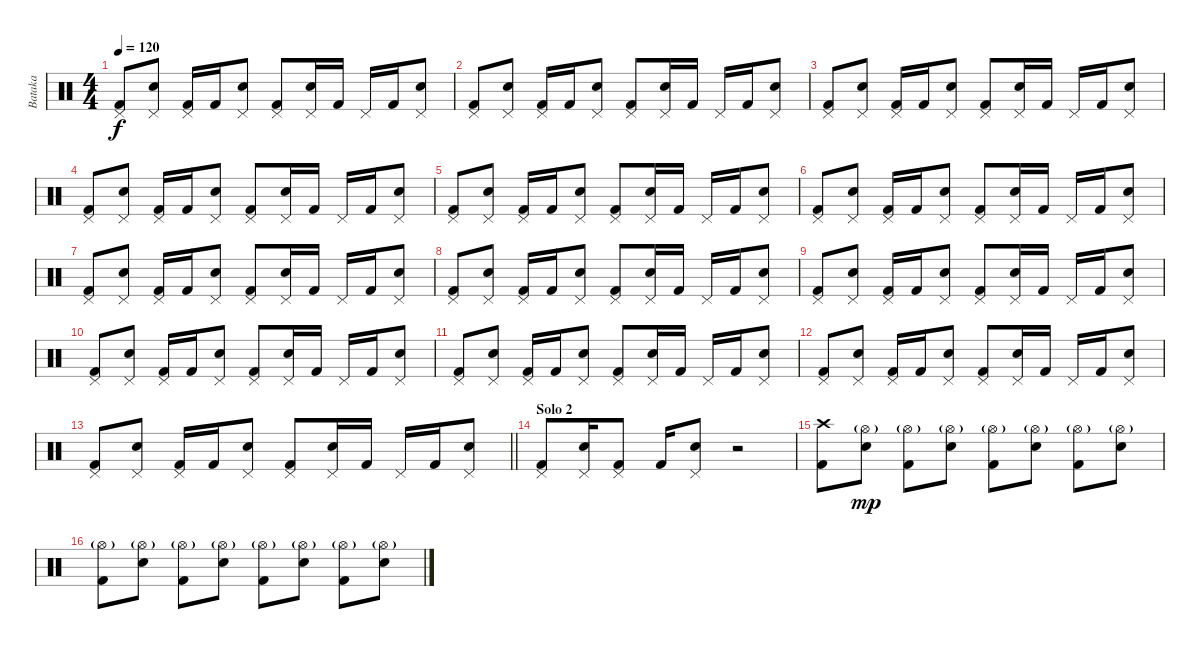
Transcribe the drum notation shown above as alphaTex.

\track ("Bataka" "Bataka") {instrument percussion}
\staff {score}
\articulation defaults
\ts (4 4)
\tempo 120
\clef neutral
\ks c
("Pedal Hi-Hat (hit)" "Kick (hit) 2").8{dy f} ("Pedal Hi-Hat (hit)" "Snare (hit) 2").8 ("Pedal Hi-Hat (hit)" "Kick (hit) 2").16 "Kick (hit) 2".16 ("Pedal Hi-Hat (hit)" "Snare (hit) 2").8 ("Pedal Hi-Hat (hit)" "Kick (hit) 2").8 ("Pedal Hi-Hat (hit)" "Snare (hit) 2").16 "Kick (hit) 2".16 "Pedal Hi-Hat (hit)".16 "Kick (hit) 2".16 ("Pedal Hi-Hat (hit)" "Snare (hit) 2").8 |
("Pedal Hi-Hat (hit)" "Kick (hit) 2").8 ("Pedal Hi-Hat (hit)" "Snare (hit) 2").8 ("Pedal Hi-Hat (hit)" "Kick (hit) 2").16 "Kick (hit) 2".16 ("Pedal Hi-Hat (hit)" "Snare (hit) 2").8 ("Pedal Hi-Hat (hit)" "Kick (hit) 2").8 ("Pedal Hi-Hat (hit)" "Snare (hit) 2").16 "Kick (hit) 2".16 "Pedal Hi-Hat (hit)".16 "Kick (hit) 2".16 ("Pedal Hi-Hat (hit)" "Snare (hit) 2").8 |
("Pedal Hi-Hat (hit)" "Kick (hit) 2").8 ("Pedal Hi-Hat (hit)" "Snare (hit) 2").8 ("Pedal Hi-Hat (hit)" "Kick (hit) 2").16 "Kick (hit) 2".16 ("Pedal Hi-Hat (hit)" "Snare (hit) 2").8 ("Pedal Hi-Hat (hit)" "Kick (hit) 2").8 ("Pedal Hi-Hat (hit)" "Snare (hit) 2").16 "Kick (hit) 2".16 "Pedal Hi-Hat (hit)".16 "Kick (hit) 2".16 ("Pedal Hi-Hat (hit)" "Snare (hit) 2").8 |
("Pedal Hi-Hat (hit)" "Kick (hit) 2").8 ("Pedal Hi-Hat (hit)" "Snare (hit) 2").8 ("Pedal Hi-Hat (hit)" "Kick (hit) 2").16 "Kick (hit) 2".16 ("Pedal Hi-Hat (hit)" "Snare (hit) 2").8 ("Pedal Hi-Hat (hit)" "Kick (hit) 2").8 ("Pedal Hi-Hat (hit)" "Snare (hit) 2").16 "Kick (hit) 2".16 "Pedal Hi-Hat (hit)".16 "Kick (hit) 2".16 ("Pedal Hi-Hat (hit)" "Snare (hit) 2").8 |
("Pedal Hi-Hat (hit)" "Kick (hit) 2").8 ("Pedal Hi-Hat (hit)" "Snare (hit) 2").8 ("Pedal Hi-Hat (hit)" "Kick (hit) 2").16 "Kick (hit) 2".16 ("Pedal Hi-Hat (hit)" "Snare (hit) 2").8 ("Pedal Hi-Hat (hit)" "Kick (hit) 2").8 ("Pedal Hi-Hat (hit)" "Snare (hit) 2").16 "Kick (hit) 2".16 "Pedal Hi-Hat (hit)".16 "Kick (hit) 2".16 ("Pedal Hi-Hat (hit)" "Snare (hit) 2").8 |
("Pedal Hi-Hat (hit)" "Kick (hit) 2").8 ("Pedal Hi-Hat (hit)" "Snare (hit) 2").8 ("Pedal Hi-Hat (hit)" "Kick (hit) 2").16 "Kick (hit) 2".16 ("Pedal Hi-Hat (hit)" "Snare (hit) 2").8 ("Pedal Hi-Hat (hit)" "Kick (hit) 2").8 ("Pedal Hi-Hat (hit)" "Snare (hit) 2").16 "Kick (hit) 2".16 "Pedal Hi-Hat (hit)".16 "Kick (hit) 2".16 ("Pedal Hi-Hat (hit)" "Snare (hit) 2").8 |
("Pedal Hi-Hat (hit)" "Kick (hit) 2").8 ("Pedal Hi-Hat (hit)" "Snare (hit) 2").8 ("Pedal Hi-Hat (hit)" "Kick (hit) 2").16 "Kick (hit) 2".16 ("Pedal Hi-Hat (hit)" "Snare (hit) 2").8 ("Pedal Hi-Hat (hit)" "Kick (hit) 2").8 ("Pedal Hi-Hat (hit)" "Snare (hit) 2").16 "Kick (hit) 2".16 "Pedal Hi-Hat (hit)".16 "Kick (hit) 2".16 ("Pedal Hi-Hat (hit)" "Snare (hit) 2").8 |
("Pedal Hi-Hat (hit)" "Kick (hit) 2").8 ("Pedal Hi-Hat (hit)" "Snare (hit) 2").8 ("Pedal Hi-Hat (hit)" "Kick (hit) 2").16 "Kick (hit) 2".16 ("Pedal Hi-Hat (hit)" "Snare (hit) 2").8 ("Pedal Hi-Hat (hit)" "Kick (hit) 2").8 ("Pedal Hi-Hat (hit)" "Snare (hit) 2").16 "Kick (hit) 2".16 "Pedal Hi-Hat (hit)".16 "Kick (hit) 2".16 ("Pedal Hi-Hat (hit)" "Snare (hit) 2").8 |
("Pedal Hi-Hat (hit)" "Kick (hit) 2").8 ("Pedal Hi-Hat (hit)" "Snare (hit) 2").8 ("Pedal Hi-Hat (hit)" "Kick (hit) 2").16 "Kick (hit) 2".16 ("Pedal Hi-Hat (hit)" "Snare (hit) 2").8 ("Pedal Hi-Hat (hit)" "Kick (hit) 2").8 ("Pedal Hi-Hat (hit)" "Snare (hit) 2").16 "Kick (hit) 2".16 "Pedal Hi-Hat (hit)".16 "Kick (hit) 2".16 ("Pedal Hi-Hat (hit)" "Snare (hit) 2").8 |
("Pedal Hi-Hat (hit)" "Kick (hit) 2").8 ("Pedal Hi-Hat (hit)" "Snare (hit) 2").8 ("Pedal Hi-Hat (hit)" "Kick (hit) 2").16 "Kick (hit) 2".16 ("Pedal Hi-Hat (hit)" "Snare (hit) 2").8 ("Pedal Hi-Hat (hit)" "Kick (hit) 2").8 ("Pedal Hi-Hat (hit)" "Snare (hit) 2").16 "Kick (hit) 2".16 "Pedal Hi-Hat (hit)".16 "Kick (hit) 2".16 ("Pedal Hi-Hat (hit)" "Snare (hit) 2").8 |
("Pedal Hi-Hat (hit)" "Kick (hit) 2").8 ("Pedal Hi-Hat (hit)" "Snare (hit) 2").8 ("Pedal Hi-Hat (hit)" "Kick (hit) 2").16 "Kick (hit) 2".16 ("Pedal Hi-Hat (hit)" "Snare (hit) 2").8 ("Pedal Hi-Hat (hit)" "Kick (hit) 2").8 ("Pedal Hi-Hat (hit)" "Snare (hit) 2").16 "Kick (hit) 2".16 "Pedal Hi-Hat (hit)".16 "Kick (hit) 2".16 ("Pedal Hi-Hat (hit)" "Snare (hit) 2").8 |
("Pedal Hi-Hat (hit)" "Kick (hit) 2").8 ("Pedal Hi-Hat (hit)" "Snare (hit) 2").8 ("Pedal Hi-Hat (hit)" "Kick (hit) 2").16 "Kick (hit) 2".16 ("Pedal Hi-Hat (hit)" "Snare (hit) 2").8 ("Pedal Hi-Hat (hit)" "Kick (hit) 2").8 ("Pedal Hi-Hat (hit)" "Snare (hit) 2").16 "Kick (hit) 2".16 "Pedal Hi-Hat (hit)".16 "Kick (hit) 2".16 ("Pedal Hi-Hat (hit)" "Snare (hit) 2").8 |
\barLineRight lightlight
("Pedal Hi-Hat (hit)" "Kick (hit) 2").8 ("Pedal Hi-Hat (hit)" "Snare (hit) 2").8 ("Pedal Hi-Hat (hit)" "Kick (hit) 2").16 "Kick (hit) 2".16 ("Pedal Hi-Hat (hit)" "Snare (hit) 2").8 ("Pedal Hi-Hat (hit)" "Kick (hit) 2").8 ("Pedal Hi-Hat (hit)" "Snare (hit) 2").16 "Kick (hit) 2".16 "Pedal Hi-Hat (hit)".16 "Kick (hit) 2".16 ("Pedal Hi-Hat (hit)" "Snare (hit) 2").8 |
\section ("" "Solo 2")
("Pedal Hi-Hat (hit)" "Kick (hit) 2").8 ("Pedal Hi-Hat (hit)" "Snare (hit) 2").16 ("Pedal Hi-Hat (hit)" "Kick (hit) 2").8 "Kick (hit) 2".16 ("Pedal Hi-Hat (hit)" "Snare (hit) 2").8 r.2 |
("Crash high (hit)" "Kick (hit) 2").8 ("Hi-Hat (open)"{g} "Snare (hit) 2").8{dy mp} ("Hi-Hat (open)"{g} "Kick (hit) 2").8 ("Hi-Hat (open)"{g} "Snare (hit) 2").8 ("Hi-Hat (open)"{g} "Kick (hit) 2").8 ("Hi-Hat (open)"{g} "Snare (hit) 2").8 ("Hi-Hat (open)"{g} "Kick (hit) 2").8 ("Hi-Hat (open)"{g} "Snare (hit) 2").8 |
("Hi-Hat (open)"{g} "Kick (hit) 2").8 ("Hi-Hat (open)"{g} "Snare (hit) 2").8 ("Hi-Hat (open)"{g} "Kick (hit) 2").8 ("Hi-Hat (open)"{g} "Snare (hit) 2").8 ("Hi-Hat (open)"{g} "Kick (hit) 2").8 ("Hi-Hat (open)"{g} "Snare (hit) 2").8 ("Hi-Hat (open)"{g} "Kick (hit) 2").8 ("Hi-Hat (open)"{g} "Snare (hit) 2").8
